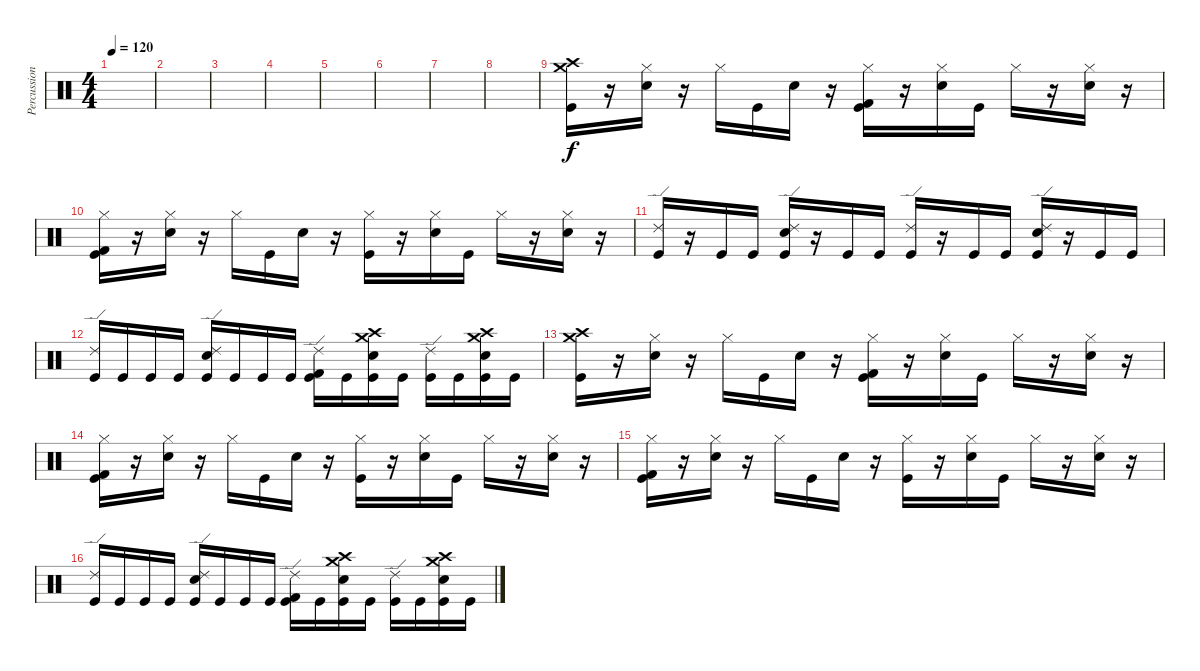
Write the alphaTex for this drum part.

\track ("Percussion" "Percussion") {instrument percussion}
\staff {score}
\articulation defaults
\ts (4 4)
\tempo 120
\clef neutral
\ks c
|
|
|
|
|
|
|
|
("Crash medium (hit)" "Crash high (hit)" "Kick (hit)").16 r.16 ("Hi-Hat (closed)" "Snare (hit) 2").16 r.16 "Hi-Hat (closed)".16 "Kick (hit)".16 "Snare (hit) 2".16 r.16 ("Hi-Hat (closed)" "Kick (hit) 2" "Kick (hit)").16 r.16 ("Hi-Hat (closed)" "Snare (hit) 2").16 "Kick (hit)".16 "Hi-Hat (closed)".16 r.16 ("Hi-Hat (closed)" "Snare (hit) 2").16 r.16 |
("Hi-Hat (closed)" "Kick (hit) 2" "Kick (hit)").16 r.16 ("Hi-Hat (closed)" "Snare (hit) 2").16 r.16 "Hi-Hat (closed)".16 "Kick (hit)".16 "Snare (hit) 2".16 r.16 ("Hi-Hat (closed)" "Kick (hit)").16 r.16 ("Hi-Hat (closed)" "Snare (hit) 2").16 "Kick (hit)".16 "Hi-Hat (closed)".16 r.16 ("Hi-Hat (closed)" "Snare (hit) 2").16 r.16 |
("Ride (edge) 2" "Kick (hit)").16 r.16 "Kick (hit)".16 "Kick (hit)".16 ("Snare (hit) 2" "Ride (edge) 2" "Kick (hit)").16 r.16 "Kick (hit)".16 "Kick (hit)".16 ("Ride (edge) 2" "Kick (hit)").16 r.16 "Kick (hit)".16 "Kick (hit)".16 ("Snare (hit) 2" "Ride (edge) 2" "Kick (hit)").16 r.16 "Kick (hit)".16 "Kick (hit)".16 |
("Ride (edge) 2" "Kick (hit)").16 "Kick (hit)".16 "Kick (hit)".16 "Kick (hit)".16 ("Snare (hit) 2" "Ride (edge) 2" "Kick (hit)").16 "Kick (hit)".16 "Kick (hit)".16 "Kick (hit)".16 ("Ride (edge) 2" "Kick (hit) 2" "Kick (hit)").16 "Kick (hit)".16 ("Crash high (hit)" "Snare (hit) 2" "Crash medium (hit)" "Kick (hit)").16 "Kick (hit)".16 ("Ride (edge) 2" "Kick (hit)").16 "Kick (hit)".16 ("Snare (hit) 2" "Crash high (hit)" "Crash medium (hit)" "Kick (hit)").16 "Kick (hit)".16 |
("Crash medium (hit)" "Crash high (hit)" "Kick (hit)").16 r.16 ("Hi-Hat (closed)" "Snare (hit) 2").16 r.16 "Hi-Hat (closed)".16 "Kick (hit)".16 "Snare (hit) 2".16 r.16 ("Hi-Hat (closed)" "Kick (hit) 2" "Kick (hit)").16 r.16 ("Hi-Hat (closed)" "Snare (hit) 2").16 "Kick (hit)".16 "Hi-Hat (closed)".16 r.16 ("Hi-Hat (closed)" "Snare (hit) 2").16 r.16 |
("Hi-Hat (closed)" "Kick (hit) 2" "Kick (hit)").16 r.16 ("Hi-Hat (closed)" "Snare (hit) 2").16 r.16 "Hi-Hat (closed)".16 "Kick (hit)".16 "Snare (hit) 2".16 r.16 ("Hi-Hat (closed)" "Kick (hit)").16 r.16 ("Hi-Hat (closed)" "Snare (hit) 2").16 "Kick (hit)".16 "Hi-Hat (closed)".16 r.16 ("Hi-Hat (closed)" "Snare (hit) 2").16 r.16 |
("Hi-Hat (closed)" "Kick (hit) 2" "Kick (hit)").16 r.16 ("Hi-Hat (closed)" "Snare (hit) 2").16 r.16 "Hi-Hat (closed)".16 "Kick (hit)".16 "Snare (hit) 2".16 r.16 ("Hi-Hat (closed)" "Kick (hit)").16 r.16 ("Hi-Hat (closed)" "Snare (hit) 2").16 "Kick (hit)".16 "Hi-Hat (closed)".16 r.16 ("Hi-Hat (closed)" "Snare (hit) 2").16 r.16 |
("Ride (edge) 2" "Kick (hit)").16 "Kick (hit)".16 "Kick (hit)".16 "Kick (hit)".16 ("Snare (hit) 2" "Ride (edge) 2" "Kick (hit)").16 "Kick (hit)".16 "Kick (hit)".16 "Kick (hit)".16 ("Ride (edge) 2" "Kick (hit) 2" "Kick (hit)").16 "Kick (hit)".16 ("Crash high (hit)" "Snare (hit) 2" "Crash medium (hit)" "Kick (hit)").16 "Kick (hit)".16 ("Ride (edge) 2" "Kick (hit)").16 "Kick (hit)".16 ("Snare (hit) 2" "Crash high (hit)" "Crash medium (hit)" "Kick (hit)").16 "Kick (hit)".16
